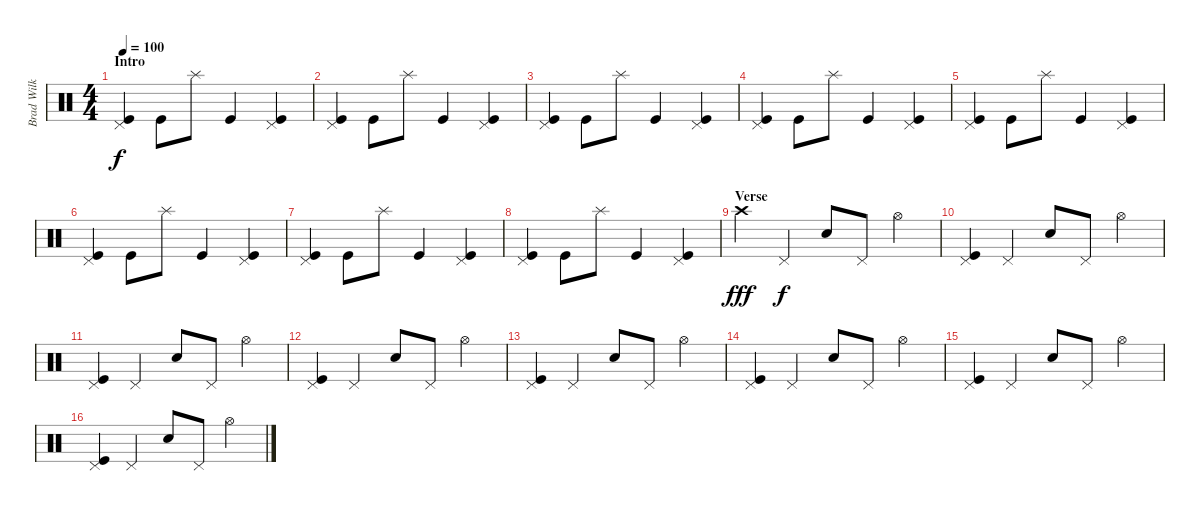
\track ("Brad Wilk - Drums" "Brad Wilk ") {instrument percussion}
\staff {score}
\articulation defaults
\ts (4 4)
\section ("" "Intro")
\tempo 100
\clef neutral
\ks c
("Pedal Hi-Hat (hit)" "Kick (hit)").4{dy f} "Kick (hit)".8 "Splash (hit)".8 "Kick (hit)".4 ("Pedal Hi-Hat (hit)" "Kick (hit)").4 |
("Pedal Hi-Hat (hit)" "Kick (hit)").4 "Kick (hit)".8 "Splash (hit)".8 "Kick (hit)".4 ("Pedal Hi-Hat (hit)" "Kick (hit)").4 |
("Pedal Hi-Hat (hit)" "Kick (hit)").4 "Kick (hit)".8 "Splash (hit)".8 "Kick (hit)".4 ("Pedal Hi-Hat (hit)" "Kick (hit)").4 |
("Pedal Hi-Hat (hit)" "Kick (hit)").4 "Kick (hit)".8 "Splash (hit)".8 "Kick (hit)".4 ("Pedal Hi-Hat (hit)" "Kick (hit)").4 |
("Pedal Hi-Hat (hit)" "Kick (hit)").4 "Kick (hit)".8 "Splash (hit)".8 "Kick (hit)".4 ("Pedal Hi-Hat (hit)" "Kick (hit)").4 |
("Pedal Hi-Hat (hit)" "Kick (hit)").4 "Kick (hit)".8 "Splash (hit)".8 "Kick (hit)".4 ("Pedal Hi-Hat (hit)" "Kick (hit)").4 |
("Pedal Hi-Hat (hit)" "Kick (hit)").4 "Kick (hit)".8 "Splash (hit)".8 "Kick (hit)".4 ("Pedal Hi-Hat (hit)" "Kick (hit)").4 |
("Pedal Hi-Hat (hit)" "Kick (hit)").4 "Kick (hit)".8 "Splash (hit)".8 "Kick (hit)".4 ("Pedal Hi-Hat (hit)" "Kick (hit)").4 |
\section ("" "Verse")
"Crash high (hit)".4{dy fff} "Pedal Hi-Hat (hit)".4{dy f} "Electric Snare (hit)".8 "Pedal Hi-Hat (hit)".8 "Hi-Hat (open)".4 |
("Pedal Hi-Hat (hit)" "Kick (hit)").4 "Pedal Hi-Hat (hit)".4 "Electric Snare (hit)".8 "Pedal Hi-Hat (hit)".8 "Hi-Hat (open)".4 |
("Pedal Hi-Hat (hit)" "Kick (hit)").4 "Pedal Hi-Hat (hit)".4 "Electric Snare (hit)".8 "Pedal Hi-Hat (hit)".8 "Hi-Hat (open)".4 |
("Pedal Hi-Hat (hit)" "Kick (hit)").4 "Pedal Hi-Hat (hit)".4 "Electric Snare (hit)".8 "Pedal Hi-Hat (hit)".8 "Hi-Hat (open)".4 |
("Pedal Hi-Hat (hit)" "Kick (hit)").4 "Pedal Hi-Hat (hit)".4 "Electric Snare (hit)".8 "Pedal Hi-Hat (hit)".8 "Hi-Hat (open)".4 |
("Pedal Hi-Hat (hit)" "Kick (hit)").4 "Pedal Hi-Hat (hit)".4 "Electric Snare (hit)".8 "Pedal Hi-Hat (hit)".8 "Hi-Hat (open)".4 |
("Pedal Hi-Hat (hit)" "Kick (hit)").4 "Pedal Hi-Hat (hit)".4 "Electric Snare (hit)".8 "Pedal Hi-Hat (hit)".8 "Hi-Hat (open)".4 |
("Pedal Hi-Hat (hit)" "Kick (hit)").4 "Pedal Hi-Hat (hit)".4 "Electric Snare (hit)".8 "Pedal Hi-Hat (hit)".8 "Hi-Hat (open)".4
